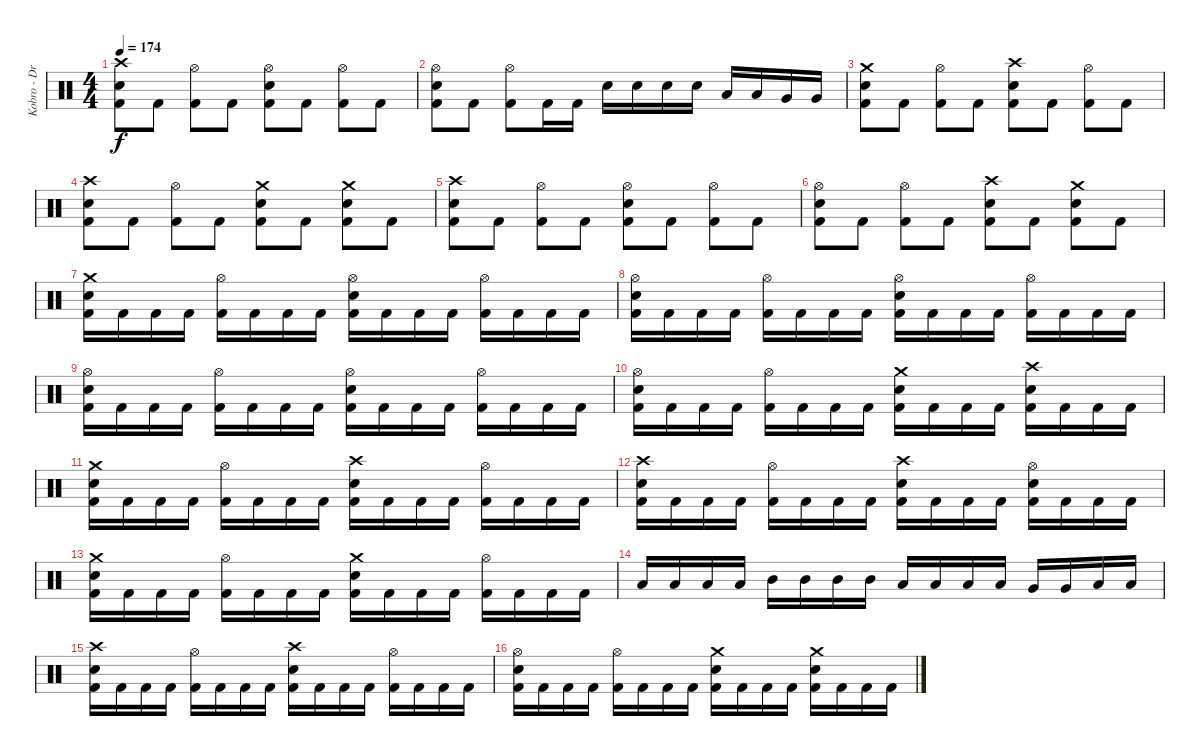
\track ("Kobro - Drums + Percussion" "Kobro - Dr") {instrument percussion}
\staff {score}
\articulation defaults
\ts (4 4)
\tempo 174
\clef neutral
\ks c
("Crash high (hit)" "Electric Snare (hit)" "Kick (hit) 2").8{dy f} "Kick (hit) 2".8 ("Hi-Hat (open)" "Kick (hit) 2").8 "Kick (hit) 2".8 ("Hi-Hat (open)" "Electric Snare (hit)" "Kick (hit) 2").8 "Kick (hit) 2".8 ("Hi-Hat (open)" "Kick (hit) 2").8 "Kick (hit) 2".8 |
("Hi-Hat (open)" "Electric Snare (hit)" "Kick (hit) 2").8 "Kick (hit) 2".8 ("Hi-Hat (open)" "Kick (hit) 2").8 "Kick (hit) 2".16 "Kick (hit) 2".16 "Electric Snare (hit)".16 "Electric Snare (hit)".16 "Electric Snare (hit)".16 "Electric Snare (hit)".16 "Low Tom (hit)".16 "Low Tom (hit)".16 "Very Low Tom (hit)".16 "Very Low Tom (hit)".16 |
("Crash medium (hit)" "Electric Snare (hit)" "Kick (hit) 2").8 "Kick (hit) 2".8 ("Hi-Hat (open)" "Kick (hit) 2").8 "Kick (hit) 2".8 ("Crash high (hit)" "Electric Snare (hit)" "Kick (hit) 2").8 "Kick (hit) 2".8 ("Hi-Hat (open)" "Kick (hit) 2").8 "Kick (hit) 2".8 |
("Crash high (hit)" "Electric Snare (hit)" "Kick (hit) 2").8 "Kick (hit) 2".8 ("Hi-Hat (open)" "Kick (hit) 2").8 "Kick (hit) 2".8 ("Crash medium (hit)" "Electric Snare (hit)" "Kick (hit) 2").8 "Kick (hit) 2".8 ("Crash medium (hit)" "Electric Snare (hit)" "Kick (hit) 2").8 "Kick (hit) 2".8 |
("Crash high (hit)" "Electric Snare (hit)" "Kick (hit) 2").8 "Kick (hit) 2".8 ("Hi-Hat (open)" "Kick (hit) 2").8 "Kick (hit) 2".8 ("Hi-Hat (open)" "Electric Snare (hit)" "Kick (hit) 2").8 "Kick (hit) 2".8 ("Hi-Hat (open)" "Kick (hit) 2").8 "Kick (hit) 2".8 |
("Hi-Hat (open)" "Electric Snare (hit)" "Kick (hit) 2").8 "Kick (hit) 2".8 ("Hi-Hat (open)" "Kick (hit) 2").8 "Kick (hit) 2".8 ("Crash high (hit)" "Electric Snare (hit)" "Kick (hit) 2").8 "Kick (hit) 2".8 ("Crash medium (hit)" "Electric Snare (hit)" "Kick (hit) 2").8 "Kick (hit) 2".8 |
("Crash medium (hit)" "Electric Snare (hit)" "Kick (hit) 2").16 "Kick (hit) 2".16 "Kick (hit) 2".16 "Kick (hit) 2".16 ("Hi-Hat (open)" "Kick (hit) 2").16 "Kick (hit) 2".16 "Kick (hit) 2".16 "Kick (hit) 2".16 ("Hi-Hat (open)" "Electric Snare (hit)" "Kick (hit) 2").16 "Kick (hit) 2".16 "Kick (hit) 2".16 "Kick (hit) 2".16 ("Hi-Hat (open)" "Kick (hit) 2").16 "Kick (hit) 2".16 "Kick (hit) 2".16 "Kick (hit) 2".16 |
("Hi-Hat (open)" "Electric Snare (hit)" "Kick (hit) 2").16 "Kick (hit) 2".16 "Kick (hit) 2".16 "Kick (hit) 2".16 ("Hi-Hat (open)" "Kick (hit) 2").16 "Kick (hit) 2".16 "Kick (hit) 2".16 "Kick (hit) 2".16 ("Hi-Hat (open)" "Electric Snare (hit)" "Kick (hit) 2").16 "Kick (hit) 2".16 "Kick (hit) 2".16 "Kick (hit) 2".16 ("Hi-Hat (open)" "Kick (hit) 2").16 "Kick (hit) 2".16 "Kick (hit) 2".16 "Kick (hit) 2".16 |
("Hi-Hat (open)" "Electric Snare (hit)" "Kick (hit) 2").16 "Kick (hit) 2".16 "Kick (hit) 2".16 "Kick (hit) 2".16 ("Hi-Hat (open)" "Kick (hit) 2").16 "Kick (hit) 2".16 "Kick (hit) 2".16 "Kick (hit) 2".16 ("Hi-Hat (open)" "Electric Snare (hit)" "Kick (hit) 2").16 "Kick (hit) 2".16 "Kick (hit) 2".16 "Kick (hit) 2".16 ("Hi-Hat (open)" "Kick (hit) 2").16 "Kick (hit) 2".16 "Kick (hit) 2".16 "Kick (hit) 2".16 |
("Hi-Hat (open)" "Electric Snare (hit)" "Kick (hit) 2").16 "Kick (hit) 2".16 "Kick (hit) 2".16 "Kick (hit) 2".16 ("Hi-Hat (open)" "Kick (hit) 2").16 "Kick (hit) 2".16 "Kick (hit) 2".16 "Kick (hit) 2".16 ("Crash medium (hit)" "Electric Snare (hit)" "Kick (hit) 2").16 "Kick (hit) 2".16 "Kick (hit) 2".16 "Kick (hit) 2".16 ("Crash high (hit)" "Electric Snare (hit)" "Kick (hit) 2").16 "Kick (hit) 2".16 "Kick (hit) 2".16 "Kick (hit) 2".16 |
("Crash medium (hit)" "Electric Snare (hit)" "Kick (hit) 2").16 "Kick (hit) 2".16 "Kick (hit) 2".16 "Kick (hit) 2".16 ("Hi-Hat (open)" "Kick (hit) 2").16 "Kick (hit) 2".16 "Kick (hit) 2".16 "Kick (hit) 2".16 ("Crash high (hit)" "Electric Snare (hit)" "Kick (hit) 2").16 "Kick (hit) 2".16 "Kick (hit) 2".16 "Kick (hit) 2".16 ("Hi-Hat (open)" "Kick (hit) 2").16 "Kick (hit) 2".16 "Kick (hit) 2".16 "Kick (hit) 2".16 |
("Crash high (hit)" "Electric Snare (hit)" "Kick (hit) 2").16 "Kick (hit) 2".16 "Kick (hit) 2".16 "Kick (hit) 2".16 ("Hi-Hat (open)" "Kick (hit) 2").16 "Kick (hit) 2".16 "Kick (hit) 2".16 "Kick (hit) 2".16 ("Crash high (hit)" "Electric Snare (hit)" "Kick (hit) 2").16 "Kick (hit) 2".16 "Kick (hit) 2".16 "Kick (hit) 2".16 ("Hi-Hat (open)" "Electric Snare (hit)" "Kick (hit) 2").16 "Kick (hit) 2".16 "Kick (hit) 2".16 "Kick (hit) 2".16 |
("Crash medium (hit)" "Electric Snare (hit)" "Kick (hit) 2").16 "Kick (hit) 2".16 "Kick (hit) 2".16 "Kick (hit) 2".16 ("Hi-Hat (open)" "Kick (hit) 2").16 "Kick (hit) 2".16 "Kick (hit) 2".16 "Kick (hit) 2".16 ("Crash medium (hit)" "Electric Snare (hit)" "Kick (hit) 2").16 "Kick (hit) 2".16 "Kick (hit) 2".16 "Kick (hit) 2".16 ("Hi-Hat (open)" "Kick (hit) 2").16 "Kick (hit) 2".16 "Kick (hit) 2".16 "Kick (hit) 2".16 |
"Low Floor Tom (hit)".16 "Low Floor Tom (hit)".16 "Low Floor Tom (hit)".16 "Low Floor Tom (hit)".16 "Mid Tom (hit)".16 "Mid Tom (hit)".16 "Mid Tom (hit)".16 "Mid Tom (hit)".16 "Low Tom (hit)".16 "Low Tom (hit)".16 "Low Tom (hit)".16 "Low Tom (hit)".16 "Very Low Tom (hit)".16 "Very Low Tom (hit)".16 "Low Tom (hit)".16 "Low Tom (hit)".16 |
("Crash high (hit)" "Electric Snare (hit)" "Kick (hit) 2").16 "Kick (hit) 2".16 "Kick (hit) 2".16 "Kick (hit) 2".16 ("Hi-Hat (open)" "Kick (hit) 2").16 "Kick (hit) 2".16 "Kick (hit) 2".16 "Kick (hit) 2".16 ("Crash high (hit)" "Electric Snare (hit)" "Kick (hit) 2").16 "Kick (hit) 2".16 "Kick (hit) 2".16 "Kick (hit) 2".16 ("Hi-Hat (open)" "Kick (hit) 2").16 "Kick (hit) 2".16 "Kick (hit) 2".16 "Kick (hit) 2".16 |
("Hi-Hat (open)" "Electric Snare (hit)" "Kick (hit) 2").16 "Kick (hit) 2".16 "Kick (hit) 2".16 "Kick (hit) 2".16 ("Hi-Hat (open)" "Kick (hit) 2").16 "Kick (hit) 2".16 "Kick (hit) 2".16 "Kick (hit) 2".16 ("Crash medium (hit)" "Electric Snare (hit)" "Kick (hit) 2").16 "Kick (hit) 2".16 "Kick (hit) 2".16 "Kick (hit) 2".16 ("Crash medium (hit)" "Electric Snare (hit)" "Kick (hit) 2").16 "Kick (hit) 2".16 "Kick (hit) 2".16 "Kick (hit) 2".16
